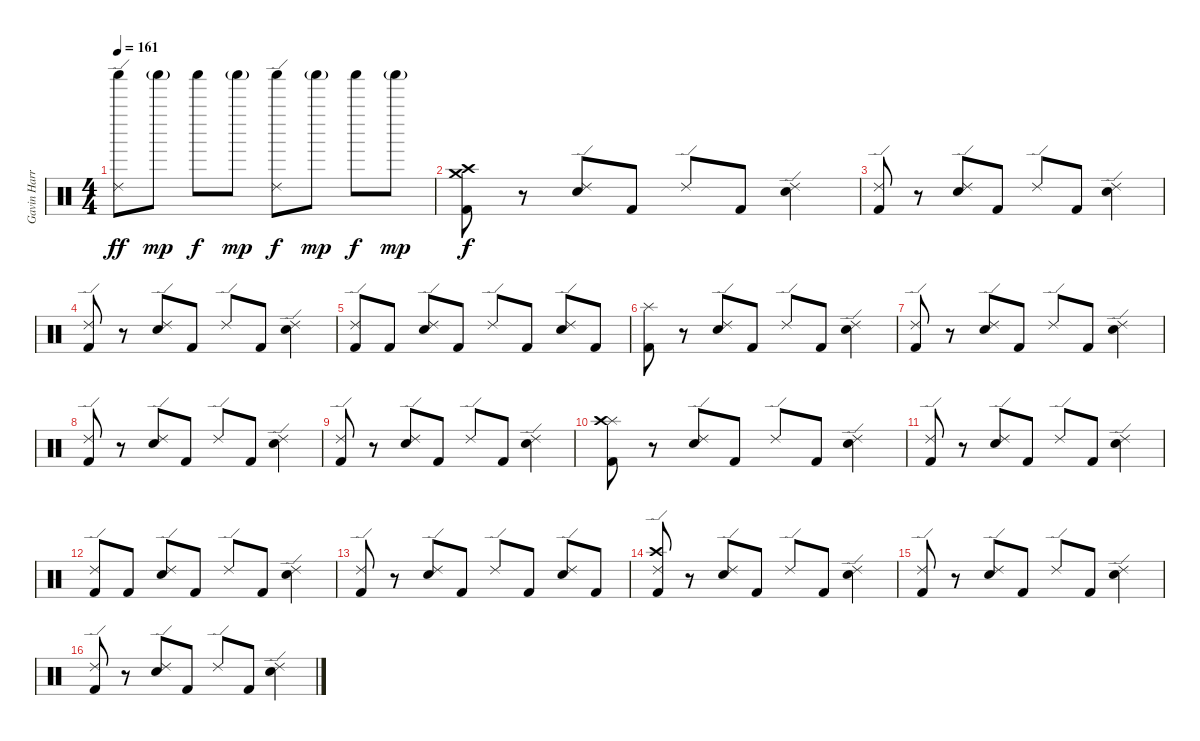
\track ("Gavin Harrison (Drums)" "Gavin Harr") {instrument percussion}
\staff {score}
\articulation defaults
\ts (4 4)
\tempo 161
\clef neutral
\ks c
("Ride (edge) 2" "Shaker (hit)").8{dy ff} "Shaker (hit)"{g}.8{dy mp} "Shaker (hit)".8{dy f} "Shaker (hit)"{g}.8{dy mp} ("Ride (edge) 2" "Shaker (hit)").8{dy f} "Shaker (hit)"{g}.8{dy mp} "Shaker (hit)".8{dy f} "Shaker (hit)"{g}.8{dy mp} |
("Crash medium (hit)" "Crash high (hit)" "Kick (hit) 2").8{dy f volume 14} r.8 ("Ride (edge) 2" "Electric Snare (hit)").8 "Kick (hit) 2".8 "Ride (edge) 2".8 "Kick (hit) 2".8 ("Ride (edge) 2" "Electric Snare (hit)").4 |
("Ride (edge) 2" "Kick (hit) 2").8 r.8 ("Ride (edge) 2" "Electric Snare (hit)").8 "Kick (hit) 2".8 "Ride (edge) 2".8 "Kick (hit) 2".8 ("Ride (edge) 2" "Electric Snare (hit)").4 |
("Ride (edge) 2" "Kick (hit) 2").8 r.8 ("Ride (edge) 2" "Electric Snare (hit)").8 "Kick (hit) 2".8 "Ride (edge) 2".8 "Kick (hit) 2".8 ("Ride (edge) 2" "Electric Snare (hit)").4 |
("Ride (edge) 2" "Kick (hit) 2").8 "Kick (hit) 2".8 ("Ride (edge) 2" "Electric Snare (hit)").8 "Kick (hit) 2".8 "Ride (edge) 2".8 "Kick (hit) 2".8 ("Ride (edge) 2" "Electric Snare (hit)").8 "Kick (hit) 2".8 |
("Splash (hit)" "Kick (hit) 2").8 r.8 ("Ride (edge) 2" "Electric Snare (hit)").8 "Kick (hit) 2".8 "Ride (edge) 2".8 "Kick (hit) 2".8 ("Ride (edge) 2" "Electric Snare (hit)").4 |
("Ride (edge) 2" "Kick (hit) 2").8 r.8 ("Ride (edge) 2" "Electric Snare (hit)").8 "Kick (hit) 2".8 "Ride (edge) 2".8 "Kick (hit) 2".8 ("Ride (edge) 2" "Electric Snare (hit)").4 |
("Ride (edge) 2" "Kick (hit) 2").8 r.8 ("Ride (edge) 2" "Electric Snare (hit)").8 "Kick (hit) 2".8 "Ride (edge) 2".8 "Kick (hit) 2".8 ("Ride (edge) 2" "Electric Snare (hit)").4 |
("Ride (edge) 2" "Kick (hit) 2").8 r.8 ("Ride (edge) 2" "Electric Snare (hit)").8 "Kick (hit) 2".8 "Ride (edge) 2".8 "Kick (hit) 2".8 ("Ride (edge) 2" "Electric Snare (hit)").4 |
("Splash (hit)" "Crash high (hit)" "Kick (hit) 2").8 r.8 ("Ride (edge) 2" "Electric Snare (hit)").8 "Kick (hit) 2".8 "Ride (edge) 2".8 "Kick (hit) 2".8 ("Ride (edge) 2" "Electric Snare (hit)").4 |
("Ride (edge) 2" "Kick (hit) 2").8 r.8 ("Ride (edge) 2" "Electric Snare (hit)").8 "Kick (hit) 2".8 "Ride (edge) 2".8 "Kick (hit) 2".8 ("Ride (edge) 2" "Electric Snare (hit)").4 |
("Ride (edge) 2" "Kick (hit) 2").8 "Kick (hit) 2".8 ("Ride (edge) 2" "Electric Snare (hit)").8 "Kick (hit) 2".8 "Ride (edge) 2".8 "Kick (hit) 2".8 ("Ride (edge) 2" "Electric Snare (hit)").4 |
("Ride (edge) 2" "Kick (hit) 2").8 r.8 ("Ride (edge) 2" "Electric Snare (hit)").8 "Kick (hit) 2".8 "Ride (edge) 2".8 "Kick (hit) 2".8 ("Ride (edge) 2" "Electric Snare (hit)").8 "Kick (hit) 2".8 |
("Crash high (hit)" "Ride (edge) 2" "Kick (hit) 2").8 r.8 ("Ride (edge) 2" "Electric Snare (hit)").8 "Kick (hit) 2".8 "Ride (edge) 2".8 "Kick (hit) 2".8 ("Ride (edge) 2" "Electric Snare (hit)").4 |
("Ride (edge) 2" "Kick (hit) 2").8 r.8 ("Ride (edge) 2" "Electric Snare (hit)").8 "Kick (hit) 2".8 "Ride (edge) 2".8 "Kick (hit) 2".8 ("Ride (edge) 2" "Electric Snare (hit)").4 |
("Ride (edge) 2" "Kick (hit) 2").8 r.8 ("Ride (edge) 2" "Electric Snare (hit)").8 "Kick (hit) 2".8 "Ride (edge) 2".8 "Kick (hit) 2".8 ("Ride (edge) 2" "Electric Snare (hit)").4
